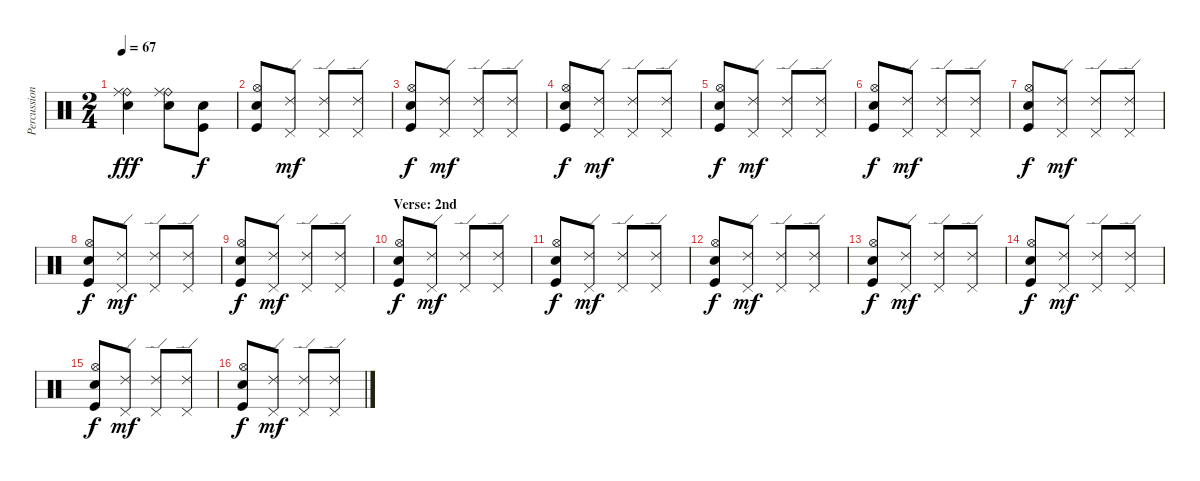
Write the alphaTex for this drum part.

\track ("Percussions" "Percussion") {instrument percussion}
\staff {score}
\articulation defaults
\ts (2 4)
\tempo 67
\clef neutral
\ks c
("Ride (bell)" "Ride (middle)" "Electric Snare (hit)").4{dy fff} ("Ride (bell)" "Ride (middle)" "Electric Snare (hit)").8 ("Electric Snare (hit)" "Kick (hit)").8{dy f} |
("Hi-Hat (open)" "Snare (hit) 2" "Kick (hit)").8 ("Ride (edge) 2" "Pedal Hi-Hat (hit)").8{dy mf} ("Ride (edge) 2" "Pedal Hi-Hat (hit)").8 ("Ride (edge) 2" "Pedal Hi-Hat (hit)").8 |
("Hi-Hat (open)" "Snare (hit) 2" "Kick (hit)").8{dy f} ("Ride (edge) 2" "Pedal Hi-Hat (hit)").8{dy mf} ("Ride (edge) 2" "Pedal Hi-Hat (hit)").8 ("Ride (edge) 2" "Pedal Hi-Hat (hit)").8 |
("Hi-Hat (open)" "Snare (hit) 2" "Kick (hit)").8{dy f} ("Ride (edge) 2" "Pedal Hi-Hat (hit)").8{dy mf} ("Ride (edge) 2" "Pedal Hi-Hat (hit)").8 ("Ride (edge) 2" "Pedal Hi-Hat (hit)").8 |
("Hi-Hat (open)" "Snare (hit) 2" "Kick (hit)").8{dy f} ("Ride (edge) 2" "Pedal Hi-Hat (hit)").8{dy mf} ("Ride (edge) 2" "Pedal Hi-Hat (hit)").8 ("Ride (edge) 2" "Pedal Hi-Hat (hit)").8 |
("Hi-Hat (open)" "Snare (hit) 2" "Kick (hit)").8{dy f} ("Ride (edge) 2" "Pedal Hi-Hat (hit)").8{dy mf} ("Ride (edge) 2" "Pedal Hi-Hat (hit)").8 ("Ride (edge) 2" "Pedal Hi-Hat (hit)").8 |
("Hi-Hat (open)" "Snare (hit) 2" "Kick (hit)").8{dy f} ("Ride (edge) 2" "Pedal Hi-Hat (hit)").8{dy mf} ("Ride (edge) 2" "Pedal Hi-Hat (hit)").8 ("Ride (edge) 2" "Pedal Hi-Hat (hit)").8 |
("Hi-Hat (open)" "Snare (hit) 2" "Kick (hit)").8{dy f} ("Ride (edge) 2" "Pedal Hi-Hat (hit)").8{dy mf} ("Ride (edge) 2" "Pedal Hi-Hat (hit)").8 ("Ride (edge) 2" "Pedal Hi-Hat (hit)").8 |
("Hi-Hat (open)" "Snare (hit) 2" "Kick (hit)").8{dy f} ("Ride (edge) 2" "Pedal Hi-Hat (hit)").8{dy mf} ("Ride (edge) 2" "Pedal Hi-Hat (hit)").8 ("Ride (edge) 2" "Pedal Hi-Hat (hit)").8 |
\section ("" "Verse: 2nd")
("Hi-Hat (open)" "Snare (hit) 2" "Kick (hit)").8{dy f} ("Ride (edge) 2" "Pedal Hi-Hat (hit)").8{dy mf} ("Ride (edge) 2" "Pedal Hi-Hat (hit)").8 ("Ride (edge) 2" "Pedal Hi-Hat (hit)").8 |
("Hi-Hat (open)" "Snare (hit) 2" "Kick (hit)").8{dy f} ("Ride (edge) 2" "Pedal Hi-Hat (hit)").8{dy mf} ("Ride (edge) 2" "Pedal Hi-Hat (hit)").8 ("Ride (edge) 2" "Pedal Hi-Hat (hit)").8 |
("Hi-Hat (open)" "Snare (hit) 2" "Kick (hit)").8{dy f} ("Ride (edge) 2" "Pedal Hi-Hat (hit)").8{dy mf} ("Ride (edge) 2" "Pedal Hi-Hat (hit)").8 ("Ride (edge) 2" "Pedal Hi-Hat (hit)").8 |
("Hi-Hat (open)" "Snare (hit) 2" "Kick (hit)").8{dy f} ("Ride (edge) 2" "Pedal Hi-Hat (hit)").8{dy mf} ("Ride (edge) 2" "Pedal Hi-Hat (hit)").8 ("Ride (edge) 2" "Pedal Hi-Hat (hit)").8 |
("Hi-Hat (open)" "Snare (hit) 2" "Kick (hit)").8{dy f} ("Ride (edge) 2" "Pedal Hi-Hat (hit)").8{dy mf} ("Ride (edge) 2" "Pedal Hi-Hat (hit)").8 ("Ride (edge) 2" "Pedal Hi-Hat (hit)").8 |
("Hi-Hat (open)" "Snare (hit) 2" "Kick (hit)").8{dy f} ("Ride (edge) 2" "Pedal Hi-Hat (hit)").8{dy mf} ("Ride (edge) 2" "Pedal Hi-Hat (hit)").8 ("Ride (edge) 2" "Pedal Hi-Hat (hit)").8 |
("Hi-Hat (open)" "Snare (hit) 2" "Kick (hit)").8{dy f} ("Ride (edge) 2" "Pedal Hi-Hat (hit)").8{dy mf} ("Ride (edge) 2" "Pedal Hi-Hat (hit)").8 ("Ride (edge) 2" "Pedal Hi-Hat (hit)").8
